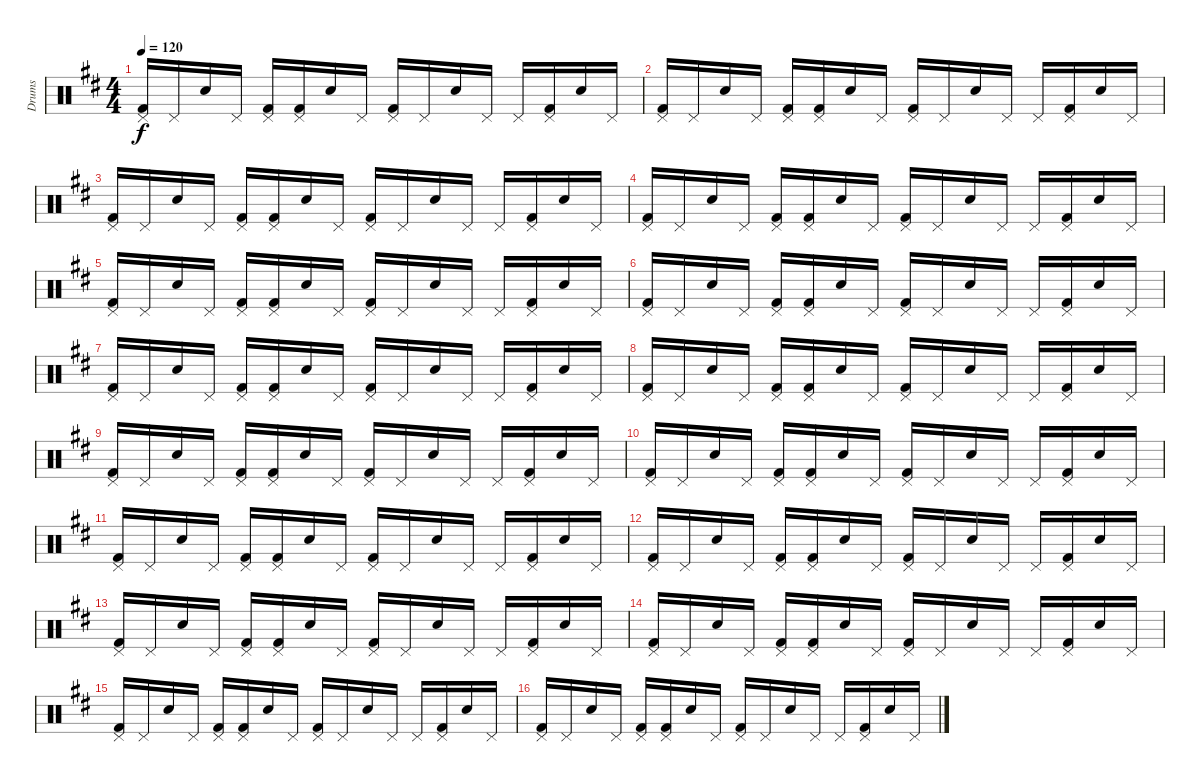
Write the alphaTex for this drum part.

\track ("Drums" "Drums") {instrument percussion}
\staff {score}
\articulation defaults
\ts (4 4)
\tempo 120
\clef neutral
\ks d
("Pedal Hi-Hat (hit)" "Kick (hit) 2").16{dy f} "Pedal Hi-Hat (hit)".16 "Electric Snare (hit)".16 "Pedal Hi-Hat (hit)".16 ("Pedal Hi-Hat (hit)" "Kick (hit) 2").16 ("Pedal Hi-Hat (hit)" "Kick (hit) 2").16 "Electric Snare (hit)".16 "Pedal Hi-Hat (hit)".16 ("Pedal Hi-Hat (hit)" "Kick (hit) 2").16 "Pedal Hi-Hat (hit)".16 "Electric Snare (hit)".16 "Pedal Hi-Hat (hit)".16 "Pedal Hi-Hat (hit)".16 ("Pedal Hi-Hat (hit)" "Kick (hit) 2").16 "Electric Snare (hit)".16 "Pedal Hi-Hat (hit)".16 |
("Pedal Hi-Hat (hit)" "Kick (hit) 2").16 "Pedal Hi-Hat (hit)".16 "Electric Snare (hit)".16 "Pedal Hi-Hat (hit)".16 ("Pedal Hi-Hat (hit)" "Kick (hit) 2").16 ("Pedal Hi-Hat (hit)" "Kick (hit) 2").16 "Electric Snare (hit)".16 "Pedal Hi-Hat (hit)".16 ("Pedal Hi-Hat (hit)" "Kick (hit) 2").16 "Pedal Hi-Hat (hit)".16 "Electric Snare (hit)".16 "Pedal Hi-Hat (hit)".16 "Pedal Hi-Hat (hit)".16 ("Pedal Hi-Hat (hit)" "Kick (hit) 2").16 "Electric Snare (hit)".16 "Pedal Hi-Hat (hit)".16 |
("Pedal Hi-Hat (hit)" "Kick (hit) 2").16 "Pedal Hi-Hat (hit)".16 "Electric Snare (hit)".16 "Pedal Hi-Hat (hit)".16 ("Pedal Hi-Hat (hit)" "Kick (hit) 2").16 ("Pedal Hi-Hat (hit)" "Kick (hit) 2").16 "Electric Snare (hit)".16 "Pedal Hi-Hat (hit)".16 ("Pedal Hi-Hat (hit)" "Kick (hit) 2").16 "Pedal Hi-Hat (hit)".16 "Electric Snare (hit)".16 "Pedal Hi-Hat (hit)".16 "Pedal Hi-Hat (hit)".16 ("Pedal Hi-Hat (hit)" "Kick (hit) 2").16 "Electric Snare (hit)".16 "Pedal Hi-Hat (hit)".16 |
("Pedal Hi-Hat (hit)" "Kick (hit) 2").16 "Pedal Hi-Hat (hit)".16 "Electric Snare (hit)".16 "Pedal Hi-Hat (hit)".16 ("Pedal Hi-Hat (hit)" "Kick (hit) 2").16 ("Pedal Hi-Hat (hit)" "Kick (hit) 2").16 "Electric Snare (hit)".16 "Pedal Hi-Hat (hit)".16 ("Pedal Hi-Hat (hit)" "Kick (hit) 2").16 "Pedal Hi-Hat (hit)".16 "Electric Snare (hit)".16 "Pedal Hi-Hat (hit)".16 "Pedal Hi-Hat (hit)".16 ("Pedal Hi-Hat (hit)" "Kick (hit) 2").16 "Electric Snare (hit)".16 "Pedal Hi-Hat (hit)".16 |
("Pedal Hi-Hat (hit)" "Kick (hit) 2").16 "Pedal Hi-Hat (hit)".16 "Electric Snare (hit)".16 "Pedal Hi-Hat (hit)".16 ("Pedal Hi-Hat (hit)" "Kick (hit) 2").16 ("Pedal Hi-Hat (hit)" "Kick (hit) 2").16 "Electric Snare (hit)".16 "Pedal Hi-Hat (hit)".16 ("Pedal Hi-Hat (hit)" "Kick (hit) 2").16 "Pedal Hi-Hat (hit)".16 "Electric Snare (hit)".16 "Pedal Hi-Hat (hit)".16 "Pedal Hi-Hat (hit)".16 ("Pedal Hi-Hat (hit)" "Kick (hit) 2").16 "Electric Snare (hit)".16 "Pedal Hi-Hat (hit)".16 |
("Pedal Hi-Hat (hit)" "Kick (hit) 2").16 "Pedal Hi-Hat (hit)".16 "Electric Snare (hit)".16 "Pedal Hi-Hat (hit)".16 ("Pedal Hi-Hat (hit)" "Kick (hit) 2").16 ("Pedal Hi-Hat (hit)" "Kick (hit) 2").16 "Electric Snare (hit)".16 "Pedal Hi-Hat (hit)".16 ("Pedal Hi-Hat (hit)" "Kick (hit) 2").16 "Pedal Hi-Hat (hit)".16 "Electric Snare (hit)".16 "Pedal Hi-Hat (hit)".16 "Pedal Hi-Hat (hit)".16 ("Pedal Hi-Hat (hit)" "Kick (hit) 2").16 "Electric Snare (hit)".16 "Pedal Hi-Hat (hit)".16 |
("Pedal Hi-Hat (hit)" "Kick (hit) 2").16 "Pedal Hi-Hat (hit)".16 "Electric Snare (hit)".16 "Pedal Hi-Hat (hit)".16 ("Pedal Hi-Hat (hit)" "Kick (hit) 2").16 ("Pedal Hi-Hat (hit)" "Kick (hit) 2").16 "Electric Snare (hit)".16 "Pedal Hi-Hat (hit)".16 ("Pedal Hi-Hat (hit)" "Kick (hit) 2").16 "Pedal Hi-Hat (hit)".16 "Electric Snare (hit)".16 "Pedal Hi-Hat (hit)".16 "Pedal Hi-Hat (hit)".16 ("Pedal Hi-Hat (hit)" "Kick (hit) 2").16 "Electric Snare (hit)".16 "Pedal Hi-Hat (hit)".16 |
("Pedal Hi-Hat (hit)" "Kick (hit) 2").16 "Pedal Hi-Hat (hit)".16 "Electric Snare (hit)".16 "Pedal Hi-Hat (hit)".16 ("Pedal Hi-Hat (hit)" "Kick (hit) 2").16 ("Pedal Hi-Hat (hit)" "Kick (hit) 2").16 "Electric Snare (hit)".16 "Pedal Hi-Hat (hit)".16 ("Pedal Hi-Hat (hit)" "Kick (hit) 2").16 "Pedal Hi-Hat (hit)".16 "Electric Snare (hit)".16 "Pedal Hi-Hat (hit)".16 "Pedal Hi-Hat (hit)".16 ("Pedal Hi-Hat (hit)" "Kick (hit) 2").16 "Electric Snare (hit)".16 "Pedal Hi-Hat (hit)".16 |
("Pedal Hi-Hat (hit)" "Kick (hit) 2").16 "Pedal Hi-Hat (hit)".16 "Electric Snare (hit)".16 "Pedal Hi-Hat (hit)".16 ("Pedal Hi-Hat (hit)" "Kick (hit) 2").16 ("Pedal Hi-Hat (hit)" "Kick (hit) 2").16 "Electric Snare (hit)".16 "Pedal Hi-Hat (hit)".16 ("Pedal Hi-Hat (hit)" "Kick (hit) 2").16 "Pedal Hi-Hat (hit)".16 "Electric Snare (hit)".16 "Pedal Hi-Hat (hit)".16 "Pedal Hi-Hat (hit)".16 ("Pedal Hi-Hat (hit)" "Kick (hit) 2").16 "Electric Snare (hit)".16 "Pedal Hi-Hat (hit)".16 |
("Pedal Hi-Hat (hit)" "Kick (hit) 2").16 "Pedal Hi-Hat (hit)".16 "Electric Snare (hit)".16 "Pedal Hi-Hat (hit)".16 ("Pedal Hi-Hat (hit)" "Kick (hit) 2").16 ("Pedal Hi-Hat (hit)" "Kick (hit) 2").16 "Electric Snare (hit)".16 "Pedal Hi-Hat (hit)".16 ("Pedal Hi-Hat (hit)" "Kick (hit) 2").16 "Pedal Hi-Hat (hit)".16 "Electric Snare (hit)".16 "Pedal Hi-Hat (hit)".16 "Pedal Hi-Hat (hit)".16 ("Pedal Hi-Hat (hit)" "Kick (hit) 2").16 "Electric Snare (hit)".16 "Pedal Hi-Hat (hit)".16 |
("Pedal Hi-Hat (hit)" "Kick (hit) 2").16 "Pedal Hi-Hat (hit)".16 "Electric Snare (hit)".16 "Pedal Hi-Hat (hit)".16 ("Pedal Hi-Hat (hit)" "Kick (hit) 2").16 ("Pedal Hi-Hat (hit)" "Kick (hit) 2").16 "Electric Snare (hit)".16 "Pedal Hi-Hat (hit)".16 ("Pedal Hi-Hat (hit)" "Kick (hit) 2").16 "Pedal Hi-Hat (hit)".16 "Electric Snare (hit)".16 "Pedal Hi-Hat (hit)".16 "Pedal Hi-Hat (hit)".16 ("Pedal Hi-Hat (hit)" "Kick (hit) 2").16 "Electric Snare (hit)".16 "Pedal Hi-Hat (hit)".16 |
("Pedal Hi-Hat (hit)" "Kick (hit) 2").16 "Pedal Hi-Hat (hit)".16 "Electric Snare (hit)".16 "Pedal Hi-Hat (hit)".16 ("Pedal Hi-Hat (hit)" "Kick (hit) 2").16 ("Pedal Hi-Hat (hit)" "Kick (hit) 2").16 "Electric Snare (hit)".16 "Pedal Hi-Hat (hit)".16 ("Pedal Hi-Hat (hit)" "Kick (hit) 2").16 "Pedal Hi-Hat (hit)".16 "Electric Snare (hit)".16 "Pedal Hi-Hat (hit)".16 "Pedal Hi-Hat (hit)".16 ("Pedal Hi-Hat (hit)" "Kick (hit) 2").16 "Electric Snare (hit)".16 "Pedal Hi-Hat (hit)".16 |
("Pedal Hi-Hat (hit)" "Kick (hit) 2").16 "Pedal Hi-Hat (hit)".16 "Electric Snare (hit)".16 "Pedal Hi-Hat (hit)".16 ("Pedal Hi-Hat (hit)" "Kick (hit) 2").16 ("Pedal Hi-Hat (hit)" "Kick (hit) 2").16 "Electric Snare (hit)".16 "Pedal Hi-Hat (hit)".16 ("Pedal Hi-Hat (hit)" "Kick (hit) 2").16 "Pedal Hi-Hat (hit)".16 "Electric Snare (hit)".16 "Pedal Hi-Hat (hit)".16 "Pedal Hi-Hat (hit)".16 ("Pedal Hi-Hat (hit)" "Kick (hit) 2").16 "Electric Snare (hit)".16 "Pedal Hi-Hat (hit)".16 |
("Pedal Hi-Hat (hit)" "Kick (hit) 2").16 "Pedal Hi-Hat (hit)".16 "Electric Snare (hit)".16 "Pedal Hi-Hat (hit)".16 ("Pedal Hi-Hat (hit)" "Kick (hit) 2").16 ("Pedal Hi-Hat (hit)" "Kick (hit) 2").16 "Electric Snare (hit)".16 "Pedal Hi-Hat (hit)".16 ("Pedal Hi-Hat (hit)" "Kick (hit) 2").16 "Pedal Hi-Hat (hit)".16 "Electric Snare (hit)".16 "Pedal Hi-Hat (hit)".16 "Pedal Hi-Hat (hit)".16 ("Pedal Hi-Hat (hit)" "Kick (hit) 2").16 "Electric Snare (hit)".16 "Pedal Hi-Hat (hit)".16 |
("Pedal Hi-Hat (hit)" "Kick (hit) 2").16 "Pedal Hi-Hat (hit)".16 "Electric Snare (hit)".16 "Pedal Hi-Hat (hit)".16 ("Pedal Hi-Hat (hit)" "Kick (hit) 2").16 ("Pedal Hi-Hat (hit)" "Kick (hit) 2").16 "Electric Snare (hit)".16 "Pedal Hi-Hat (hit)".16 ("Pedal Hi-Hat (hit)" "Kick (hit) 2").16 "Pedal Hi-Hat (hit)".16 "Electric Snare (hit)".16 "Pedal Hi-Hat (hit)".16 "Pedal Hi-Hat (hit)".16 ("Pedal Hi-Hat (hit)" "Kick (hit) 2").16 "Electric Snare (hit)".16 "Pedal Hi-Hat (hit)".16 |
("Pedal Hi-Hat (hit)" "Kick (hit) 2").16 "Pedal Hi-Hat (hit)".16 "Electric Snare (hit)".16 "Pedal Hi-Hat (hit)".16 ("Pedal Hi-Hat (hit)" "Kick (hit) 2").16 ("Pedal Hi-Hat (hit)" "Kick (hit) 2").16 "Electric Snare (hit)".16 "Pedal Hi-Hat (hit)".16 ("Pedal Hi-Hat (hit)" "Kick (hit) 2").16 "Pedal Hi-Hat (hit)".16 "Electric Snare (hit)".16 "Pedal Hi-Hat (hit)".16 "Pedal Hi-Hat (hit)".16 ("Pedal Hi-Hat (hit)" "Kick (hit) 2").16 "Electric Snare (hit)".16 "Pedal Hi-Hat (hit)".16
